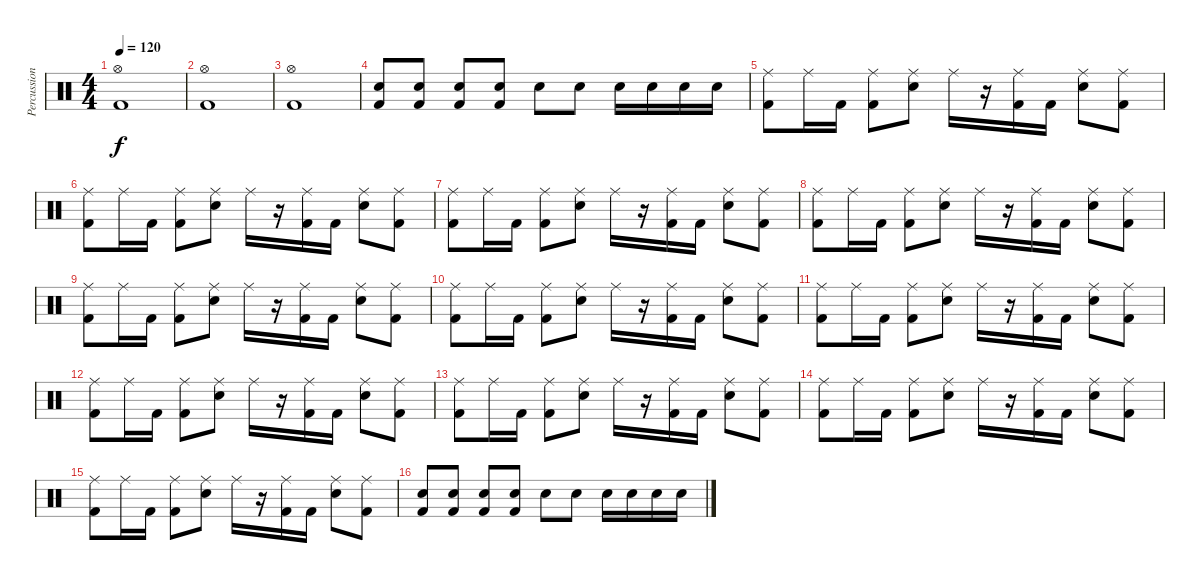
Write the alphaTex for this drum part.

\track ("Percussion" "Percussion") {instrument percussion}
\staff {score}
\articulation defaults
\ts (4 4)
\tempo 120
\clef neutral
\ks c
("Hi-Hat (open)" "Kick (hit) 2").1{dy f} |
("Hi-Hat (open)" "Kick (hit) 2").1 |
("Hi-Hat (open)" "Kick (hit) 2").1 |
("Snare (hit) 2" "Kick (hit) 2").8 ("Snare (hit) 2" "Kick (hit) 2").8 ("Snare (hit) 2" "Kick (hit) 2").8 ("Snare (hit) 2" "Kick (hit) 2").8 "Snare (hit) 2".8 "Snare (hit) 2".8 "Snare (hit) 2".16 "Snare (hit) 2".16 "Snare (hit) 2".16 "Snare (hit) 2".16 |
("Ride (middle)" "Kick (hit) 2").8 "Ride (middle)".16 "Kick (hit) 2".16 ("Ride (middle)" "Kick (hit) 2").8 ("Snare (hit) 2" "Ride (middle)").8 "Ride (middle)".16 r.16 ("Ride (middle)" "Kick (hit) 2").16 "Kick (hit) 2".16 ("Snare (hit) 2" "Ride (middle)").8 ("Ride (middle)" "Kick (hit) 2").8 |
("Ride (middle)" "Kick (hit) 2").8 "Ride (middle)".16 "Kick (hit) 2".16 ("Ride (middle)" "Kick (hit) 2").8 ("Snare (hit) 2" "Ride (middle)").8 "Ride (middle)".16 r.16 ("Ride (middle)" "Kick (hit) 2").16 "Kick (hit) 2".16 ("Snare (hit) 2" "Ride (middle)").8 ("Ride (middle)" "Kick (hit) 2").8 |
("Ride (middle)" "Kick (hit) 2").8 "Ride (middle)".16 "Kick (hit) 2".16 ("Ride (middle)" "Kick (hit) 2").8 ("Snare (hit) 2" "Ride (middle)").8 "Ride (middle)".16 r.16 ("Ride (middle)" "Kick (hit) 2").16 "Kick (hit) 2".16 ("Snare (hit) 2" "Ride (middle)").8 ("Ride (middle)" "Kick (hit) 2").8 |
("Ride (middle)" "Kick (hit) 2").8 "Ride (middle)".16 "Kick (hit) 2".16 ("Ride (middle)" "Kick (hit) 2").8 ("Snare (hit) 2" "Ride (middle)").8 "Ride (middle)".16 r.16 ("Ride (middle)" "Kick (hit) 2").16 "Kick (hit) 2".16 ("Snare (hit) 2" "Ride (middle)").8 ("Ride (middle)" "Kick (hit) 2").8 |
("Ride (middle)" "Kick (hit) 2").8 "Ride (middle)".16 "Kick (hit) 2".16 ("Ride (middle)" "Kick (hit) 2").8 ("Snare (hit) 2" "Ride (middle)").8 "Ride (middle)".16 r.16 ("Ride (middle)" "Kick (hit) 2").16 "Kick (hit) 2".16 ("Snare (hit) 2" "Ride (middle)").8 ("Ride (middle)" "Kick (hit) 2").8 |
("Ride (middle)" "Kick (hit) 2").8 "Ride (middle)".16 "Kick (hit) 2".16 ("Ride (middle)" "Kick (hit) 2").8 ("Snare (hit) 2" "Ride (middle)").8 "Ride (middle)".16 r.16 ("Ride (middle)" "Kick (hit) 2").16 "Kick (hit) 2".16 ("Snare (hit) 2" "Ride (middle)").8 ("Ride (middle)" "Kick (hit) 2").8 |
("Ride (middle)" "Kick (hit) 2").8 "Ride (middle)".16 "Kick (hit) 2".16 ("Ride (middle)" "Kick (hit) 2").8 ("Snare (hit) 2" "Ride (middle)").8 "Ride (middle)".16 r.16 ("Ride (middle)" "Kick (hit) 2").16 "Kick (hit) 2".16 ("Snare (hit) 2" "Ride (middle)").8 ("Ride (middle)" "Kick (hit) 2").8 |
("Ride (middle)" "Kick (hit) 2").8 "Ride (middle)".16 "Kick (hit) 2".16 ("Ride (middle)" "Kick (hit) 2").8 ("Snare (hit) 2" "Ride (middle)").8 "Ride (middle)".16 r.16 ("Ride (middle)" "Kick (hit) 2").16 "Kick (hit) 2".16 ("Snare (hit) 2" "Ride (middle)").8 ("Ride (middle)" "Kick (hit) 2").8 |
("Ride (middle)" "Kick (hit) 2").8 "Ride (middle)".16 "Kick (hit) 2".16 ("Ride (middle)" "Kick (hit) 2").8 ("Snare (hit) 2" "Ride (middle)").8 "Ride (middle)".16 r.16 ("Ride (middle)" "Kick (hit) 2").16 "Kick (hit) 2".16 ("Snare (hit) 2" "Ride (middle)").8 ("Ride (middle)" "Kick (hit) 2").8 |
("Ride (middle)" "Kick (hit) 2").8 "Ride (middle)".16 "Kick (hit) 2".16 ("Ride (middle)" "Kick (hit) 2").8 ("Snare (hit) 2" "Ride (middle)").8 "Ride (middle)".16 r.16 ("Ride (middle)" "Kick (hit) 2").16 "Kick (hit) 2".16 ("Snare (hit) 2" "Ride (middle)").8 ("Ride (middle)" "Kick (hit) 2").8 |
("Ride (middle)" "Kick (hit) 2").8 "Ride (middle)".16 "Kick (hit) 2".16 ("Ride (middle)" "Kick (hit) 2").8 ("Snare (hit) 2" "Ride (middle)").8 "Ride (middle)".16 r.16 ("Ride (middle)" "Kick (hit) 2").16 "Kick (hit) 2".16 ("Snare (hit) 2" "Ride (middle)").8 ("Ride (middle)" "Kick (hit) 2").8 |
("Snare (hit) 2" "Kick (hit) 2").8 ("Snare (hit) 2" "Kick (hit) 2").8 ("Snare (hit) 2" "Kick (hit) 2").8 ("Snare (hit) 2" "Kick (hit) 2").8 "Snare (hit) 2".8 "Snare (hit) 2".8 "Snare (hit) 2".16 "Snare (hit) 2".16 "Snare (hit) 2".16 "Snare (hit) 2".16
